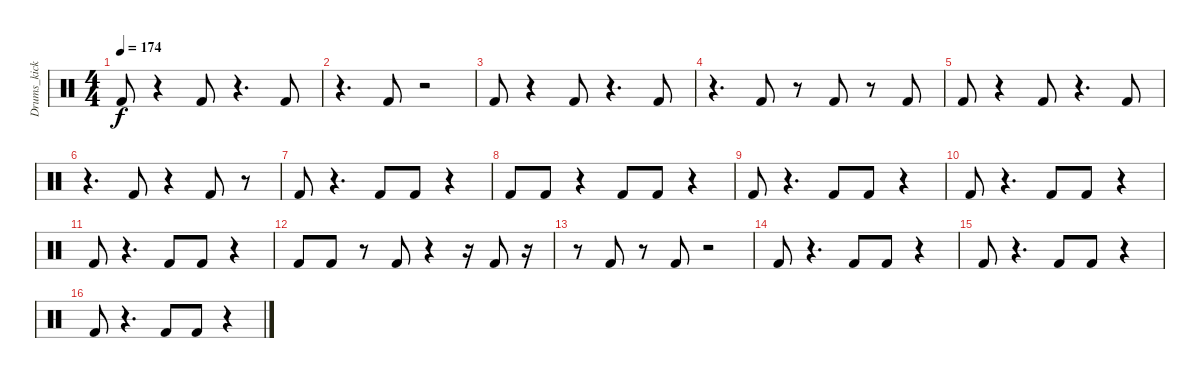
\track ("Drums_kick" "Drums_kick") {instrument percussion}
\staff {score}
\articulation defaults
\ts (4 4)
\tempo 174
\clef neutral
\ks c "Kick (hit) 2".8{dy f}
r.4 "Kick (hit) 2".8 r.4{d} "Kick (hit) 2".8 |
r.4{d} "Kick (hit) 2".8 r.2 |
"Kick (hit) 2".8 r.4 "Kick (hit) 2".8 r.4{d} "Kick (hit) 2".8 |
r.4{d} "Kick (hit) 2".8 r.8 "Kick (hit) 2".8 r.8 "Kick (hit) 2".8 |
"Kick (hit) 2".8 r.4 "Kick (hit) 2".8 r.4{d} "Kick (hit) 2".8 |
r.4{d} "Kick (hit) 2".8 r.4 "Kick (hit) 2".8 r.8 |
"Kick (hit) 2".8 r.4{d} "Kick (hit) 2".8 "Kick (hit) 2".8 r.4 |
"Kick (hit) 2".8 "Kick (hit) 2".8 r.4 "Kick (hit) 2".8 "Kick (hit) 2".8 r.4 |
"Kick (hit) 2".8 r.4{d} "Kick (hit) 2".8 "Kick (hit) 2".8 r.4 |
"Kick (hit) 2".8 r.4{d} "Kick (hit) 2".8 "Kick (hit) 2".8 r.4 |
"Kick (hit) 2".8 r.4{d} "Kick (hit) 2".8 "Kick (hit) 2".8 r.4 |
"Kick (hit) 2".8 "Kick (hit) 2".8 r.8 "Kick (hit) 2".8 r.4 r.16 "Kick (hit) 2".8 r.16 |
r.8 "Kick (hit) 2".8 r.8 "Kick (hit) 2".8 r.2 |
"Kick (hit) 2".8 r.4{d} "Kick (hit) 2".8 "Kick (hit) 2".8 r.4 |
"Kick (hit) 2".8 r.4{d} "Kick (hit) 2".8 "Kick (hit) 2".8 r.4 |
"Kick (hit) 2".8 r.4{d} "Kick (hit) 2".8 "Kick (hit) 2".8 r.4
